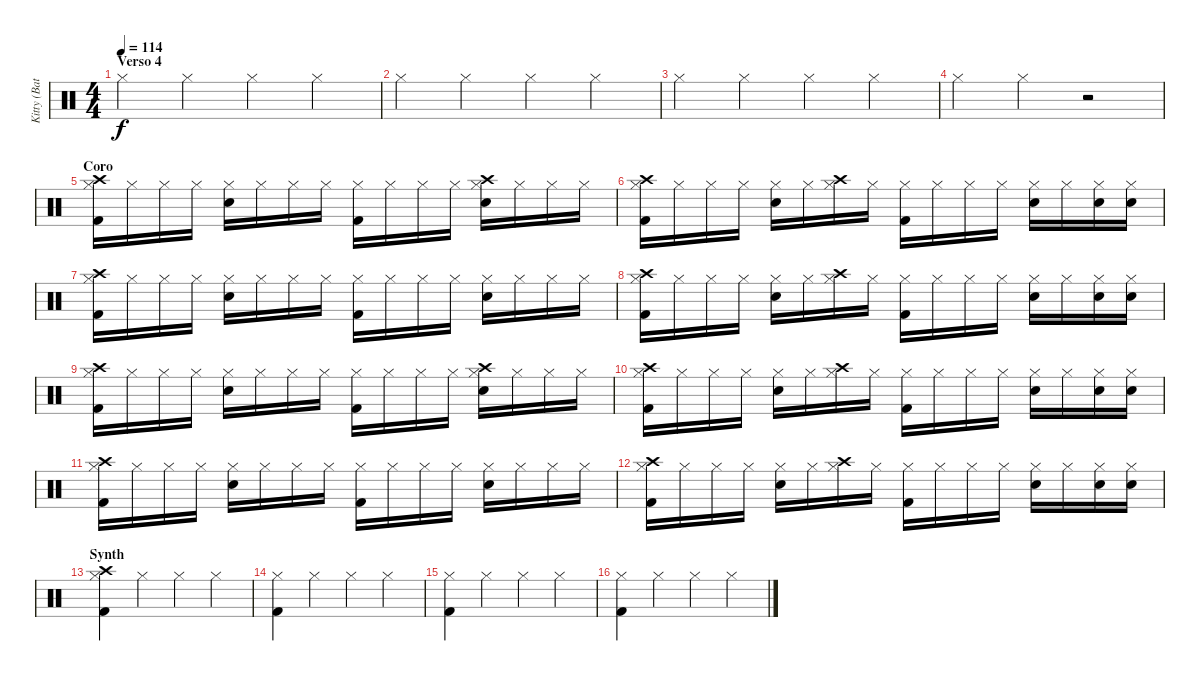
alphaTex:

\track ("Kitty (Bataca)" "Kitty (Bat") {instrument percussion}
\staff {score}
\articulation defaults
\ts (4 4)
\section ("" "Verso 4")
\tempo 114
\clef neutral
\ks c "Hi-Hat (closed)".4{dy f} "Hi-Hat (closed)".4 "Hi-Hat (closed)".4 "Hi-Hat (closed)".4
|
"Hi-Hat (closed)".4 "Hi-Hat (closed)".4 "Hi-Hat (closed)".4 "Hi-Hat (closed)".4 |
"Hi-Hat (closed)".4 "Hi-Hat (closed)".4 "Hi-Hat (closed)".4 "Hi-Hat (closed)".4 |
"Hi-Hat (closed)".4 "Hi-Hat (closed)".4 r.2 |
\section ("" "Coro")
("Crash high (hit)" "Hi-Hat (closed)" "Kick (hit) 2").16 "Hi-Hat (closed)".16 "Hi-Hat (closed)".16 "Hi-Hat (closed)".16 ("Hi-Hat (closed)" "Snare (hit) 2").16 "Hi-Hat (closed)".16 "Hi-Hat (closed)".16 "Hi-Hat (closed)".16 ("Hi-Hat (closed)" "Kick (hit) 2").16 "Hi-Hat (closed)".16 "Hi-Hat (closed)".16 "Hi-Hat (closed)".16 ("Crash high (hit)" "Hi-Hat (closed)" "Snare (hit) 2").16 "Hi-Hat (closed)".16 "Hi-Hat (closed)".16 "Hi-Hat (closed)".16 |
("Crash high (hit)" "Hi-Hat (closed)" "Kick (hit) 2").16 "Hi-Hat (closed)".16 "Hi-Hat (closed)".16 "Hi-Hat (closed)".16 ("Hi-Hat (closed)" "Snare (hit) 2").16 "Hi-Hat (closed)".16 ("Crash high (hit)" "Hi-Hat (closed)").16 "Hi-Hat (closed)".16 ("Hi-Hat (closed)" "Kick (hit) 2").16 "Hi-Hat (closed)".16 "Hi-Hat (closed)".16 "Hi-Hat (closed)".16 ("Hi-Hat (closed)" "Snare (hit) 2").16 "Hi-Hat (closed)".16 ("Hi-Hat (closed)" "Snare (hit) 2").16 ("Hi-Hat (closed)" "Snare (hit) 2").16 |
("Crash high (hit)" "Hi-Hat (closed)" "Kick (hit) 2").16 "Hi-Hat (closed)".16 "Hi-Hat (closed)".16 "Hi-Hat (closed)".16 ("Hi-Hat (closed)" "Snare (hit) 2").16 "Hi-Hat (closed)".16 "Hi-Hat (closed)".16 "Hi-Hat (closed)".16 ("Hi-Hat (closed)" "Kick (hit) 2").16 "Hi-Hat (closed)".16 "Hi-Hat (closed)".16 "Hi-Hat (closed)".16 ("Hi-Hat (closed)" "Snare (hit) 2").16 "Hi-Hat (closed)".16 "Hi-Hat (closed)".16 "Hi-Hat (closed)".16 |
("Crash high (hit)" "Hi-Hat (closed)" "Kick (hit) 2").16 "Hi-Hat (closed)".16 "Hi-Hat (closed)".16 "Hi-Hat (closed)".16 ("Hi-Hat (closed)" "Snare (hit) 2").16 "Hi-Hat (closed)".16 ("Crash high (hit)" "Hi-Hat (closed)").16 "Hi-Hat (closed)".16 ("Hi-Hat (closed)" "Kick (hit) 2").16 "Hi-Hat (closed)".16 "Hi-Hat (closed)".16 "Hi-Hat (closed)".16 ("Hi-Hat (closed)" "Snare (hit) 2").16 "Hi-Hat (closed)".16 ("Hi-Hat (closed)" "Snare (hit) 2").16 ("Hi-Hat (closed)" "Snare (hit) 2").16 |
("Crash high (hit)" "Hi-Hat (closed)" "Kick (hit) 2").16 "Hi-Hat (closed)".16 "Hi-Hat (closed)".16 "Hi-Hat (closed)".16 ("Hi-Hat (closed)" "Snare (hit) 2").16 "Hi-Hat (closed)".16 "Hi-Hat (closed)".16 "Hi-Hat (closed)".16 ("Hi-Hat (closed)" "Kick (hit) 2").16 "Hi-Hat (closed)".16 "Hi-Hat (closed)".16 "Hi-Hat (closed)".16 ("Crash high (hit)" "Hi-Hat (closed)" "Snare (hit) 2").16 "Hi-Hat (closed)".16 "Hi-Hat (closed)".16 "Hi-Hat (closed)".16 |
("Crash high (hit)" "Hi-Hat (closed)" "Kick (hit) 2").16 "Hi-Hat (closed)".16 "Hi-Hat (closed)".16 "Hi-Hat (closed)".16 ("Hi-Hat (closed)" "Snare (hit) 2").16 "Hi-Hat (closed)".16 ("Crash high (hit)" "Hi-Hat (closed)").16 "Hi-Hat (closed)".16 ("Hi-Hat (closed)" "Kick (hit) 2").16 "Hi-Hat (closed)".16 "Hi-Hat (closed)".16 "Hi-Hat (closed)".16 ("Hi-Hat (closed)" "Snare (hit) 2").16 "Hi-Hat (closed)".16 ("Hi-Hat (closed)" "Snare (hit) 2").16 ("Hi-Hat (closed)" "Snare (hit) 2").16 |
("Crash high (hit)" "Hi-Hat (closed)" "Kick (hit) 2").16 "Hi-Hat (closed)".16 "Hi-Hat (closed)".16 "Hi-Hat (closed)".16 ("Hi-Hat (closed)" "Snare (hit) 2").16 "Hi-Hat (closed)".16 "Hi-Hat (closed)".16 "Hi-Hat (closed)".16 ("Hi-Hat (closed)" "Kick (hit) 2").16 "Hi-Hat (closed)".16 "Hi-Hat (closed)".16 "Hi-Hat (closed)".16 ("Hi-Hat (closed)" "Snare (hit) 2").16 "Hi-Hat (closed)".16 "Hi-Hat (closed)".16 "Hi-Hat (closed)".16 |
("Crash high (hit)" "Hi-Hat (closed)" "Kick (hit) 2").16 "Hi-Hat (closed)".16 "Hi-Hat (closed)".16 "Hi-Hat (closed)".16 ("Hi-Hat (closed)" "Snare (hit) 2").16 "Hi-Hat (closed)".16 ("Crash high (hit)" "Hi-Hat (closed)").16 "Hi-Hat (closed)".16 ("Hi-Hat (closed)" "Kick (hit) 2").16 "Hi-Hat (closed)".16 "Hi-Hat (closed)".16 "Hi-Hat (closed)".16 ("Hi-Hat (closed)" "Snare (hit) 2").16 "Hi-Hat (closed)".16 ("Hi-Hat (closed)" "Snare (hit) 2").16 ("Hi-Hat (closed)" "Snare (hit) 2").16 |
\section ("" "Synth")
("Crash high (hit)" "Hi-Hat (closed)" "Kick (hit) 2").4 "Hi-Hat (closed)".4 "Hi-Hat (closed)".4 "Hi-Hat (closed)".4 |
("Hi-Hat (closed)" "Kick (hit) 2").4 "Hi-Hat (closed)".4 "Hi-Hat (closed)".4 "Hi-Hat (closed)".4 |
("Hi-Hat (closed)" "Kick (hit) 2").4 "Hi-Hat (closed)".4 "Hi-Hat (closed)".4 "Hi-Hat (closed)".4 |
("Hi-Hat (closed)" "Kick (hit) 2").4 "Hi-Hat (closed)".4 "Hi-Hat (closed)".4 "Hi-Hat (closed)".4
